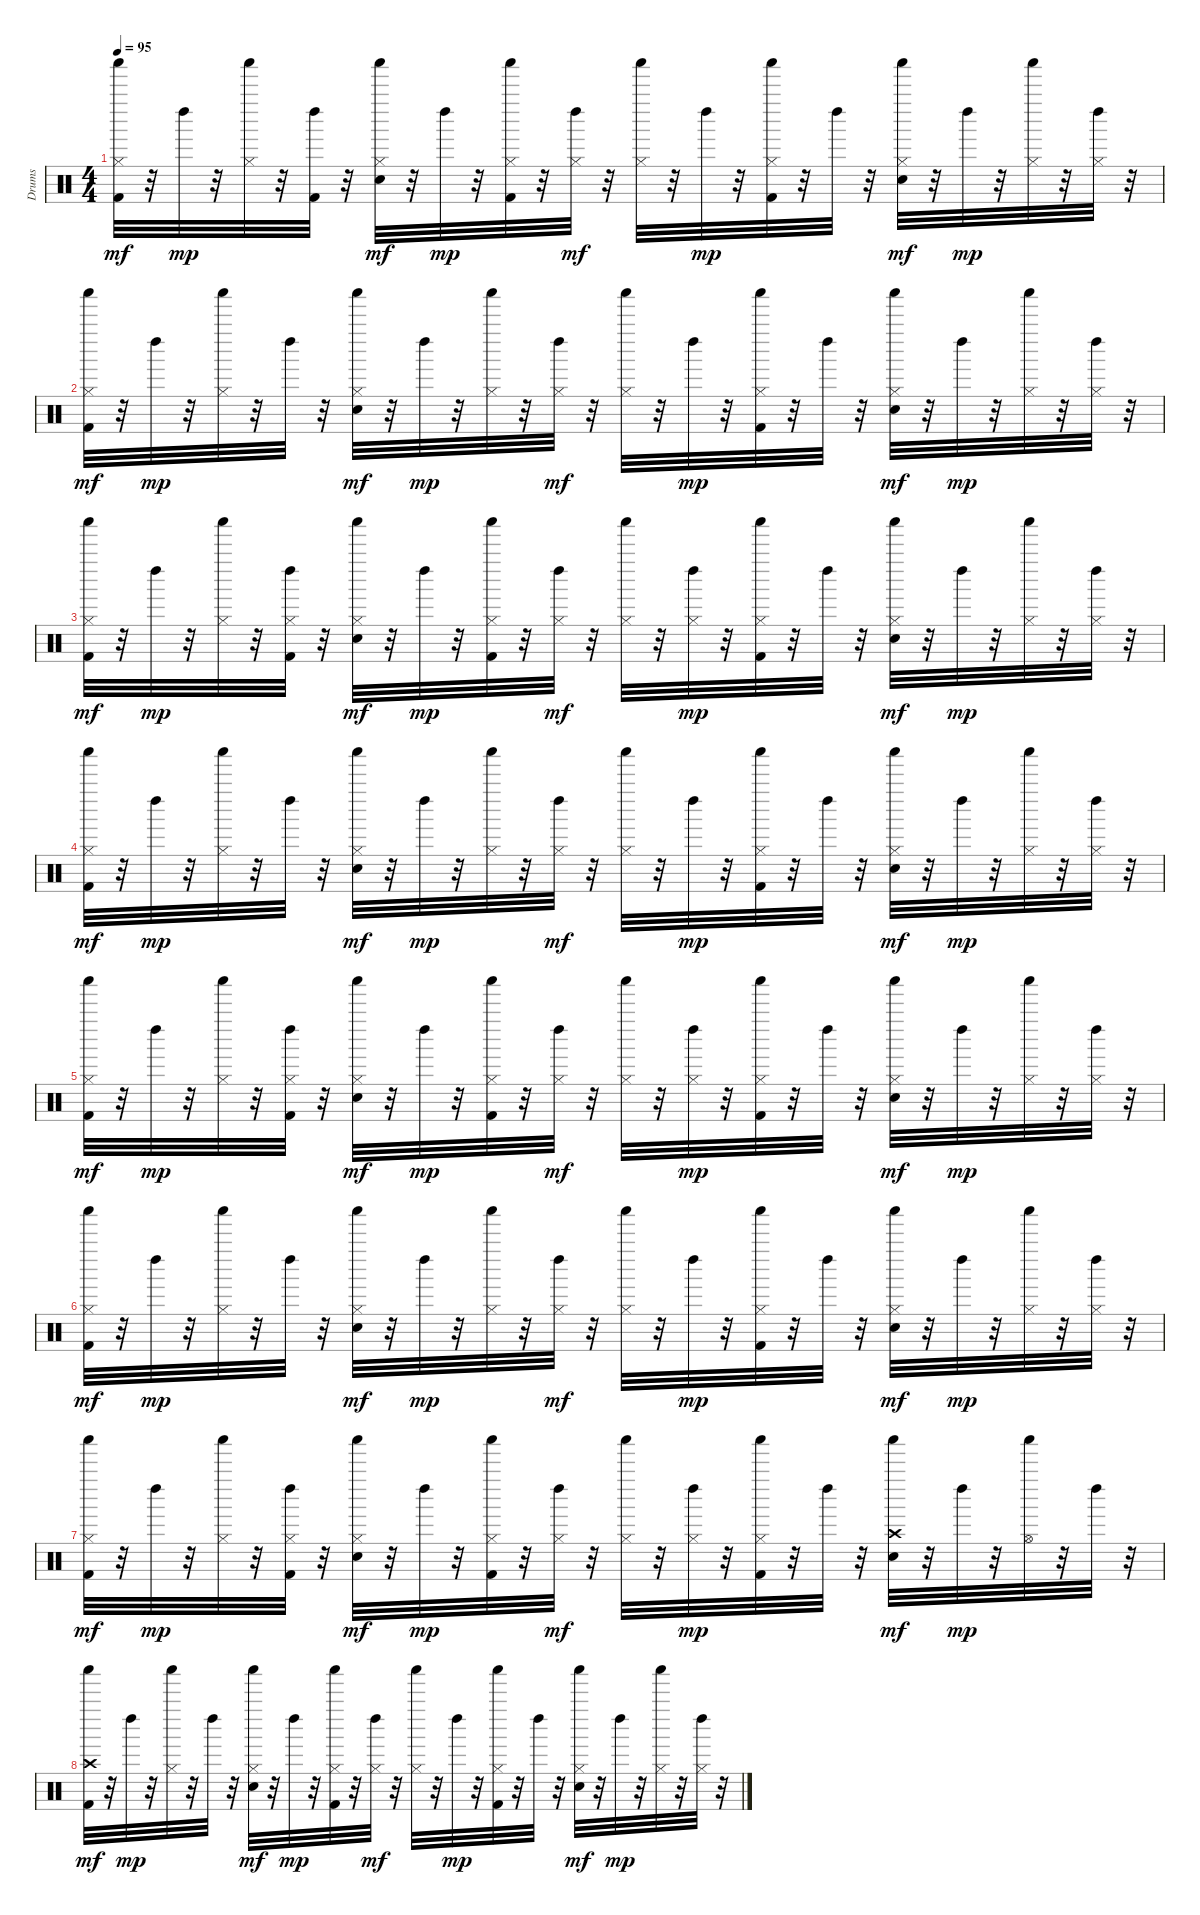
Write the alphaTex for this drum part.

\track ("Drums" "Drums") {instrument percussion}
\staff {score}
\articulation defaults
\ts (4 4)
\tempo 95
\clef neutral
\ks c
("Kick (hit) 2" "Hi-Hat (closed)" "Shaker (hit)").32{dy mf} r.32 "Left Maraca (hit)".32{dy mp} r.32 ("Hi-Hat (closed)" "Shaker (hit)").32 r.32 ("Kick (hit) 2" "Left Maraca (hit)").32 r.32 ("Electric Snare (hit)" "Hi-Hat (closed)" "Shaker (hit)").32{dy mf} r.32 "Left Maraca (hit)".32{dy mp} r.32 ("Kick (hit) 2" "Hi-Hat (closed)" "Shaker (hit)").32 r.32 ("Hi-Hat (closed)" "Left Maraca (hit)").32{dy mf} r.32 ("Hi-Hat (closed)" "Shaker (hit)").32 r.32 "Left Maraca (hit)".32{dy mp} r.32 ("Kick (hit) 2" "Hi-Hat (closed)" "Shaker (hit)").32 r.32 "Left Maraca (hit)".32 r.32 ("Electric Snare (hit)" "Hi-Hat (closed)" "Shaker (hit)").32{dy mf} r.32 "Left Maraca (hit)".32{dy mp} r.32 ("Hi-Hat (closed)" "Shaker (hit)").32 r.32 ("Hi-Hat (closed)" "Left Maraca (hit)").32 r.32 |
("Kick (hit) 2" "Hi-Hat (closed)" "Shaker (hit)").32{dy mf} r.32 "Left Maraca (hit)".32{dy mp} r.32 ("Hi-Hat (closed)" "Shaker (hit)").32 r.32 "Left Maraca (hit)".32 r.32 ("Electric Snare (hit)" "Hi-Hat (closed)" "Shaker (hit)").32{dy mf} r.32 "Left Maraca (hit)".32{dy mp} r.32 ("Hi-Hat (closed)" "Shaker (hit)").32 r.32 ("Hi-Hat (closed)" "Left Maraca (hit)").32{dy mf} r.32 ("Hi-Hat (closed)" "Shaker (hit)").32 r.32 "Left Maraca (hit)".32{dy mp} r.32 ("Kick (hit) 2" "Hi-Hat (closed)" "Shaker (hit)").32 r.32 "Left Maraca (hit)".32 r.32 ("Electric Snare (hit)" "Hi-Hat (closed)" "Shaker (hit)").32{dy mf} r.32 "Left Maraca (hit)".32{dy mp} r.32 ("Hi-Hat (closed)" "Shaker (hit)").32 r.32 ("Hi-Hat (closed)" "Left Maraca (hit)").32 r.32 |
("Kick (hit) 2" "Hi-Hat (closed)" "Shaker (hit)").32{dy mf} r.32 "Left Maraca (hit)".32{dy mp} r.32 ("Hi-Hat (closed)" "Shaker (hit)").32 r.32 ("Kick (hit) 2" "Hi-Hat (closed)" "Left Maraca (hit)").32 r.32 ("Electric Snare (hit)" "Hi-Hat (closed)" "Shaker (hit)").32{dy mf} r.32 "Left Maraca (hit)".32{dy mp} r.32 ("Kick (hit) 2" "Hi-Hat (closed)" "Shaker (hit)").32 r.32 ("Hi-Hat (closed)" "Left Maraca (hit)").32{dy mf} r.32 ("Hi-Hat (closed)" "Shaker (hit)").32 r.32 ("Hi-Hat (closed)" "Left Maraca (hit)").32{dy mp} r.32 ("Kick (hit) 2" "Hi-Hat (closed)" "Shaker (hit)").32 r.32 "Left Maraca (hit)".32 r.32 ("Electric Snare (hit)" "Hi-Hat (closed)" "Shaker (hit)").32{dy mf} r.32 "Left Maraca (hit)".32{dy mp} r.32 ("Hi-Hat (closed)" "Shaker (hit)").32 r.32 ("Hi-Hat (closed)" "Left Maraca (hit)").32 r.32 |
("Kick (hit) 2" "Hi-Hat (closed)" "Shaker (hit)").32{dy mf} r.32 "Left Maraca (hit)".32{dy mp} r.32 ("Hi-Hat (closed)" "Shaker (hit)").32 r.32 "Left Maraca (hit)".32 r.32 ("Electric Snare (hit)" "Hi-Hat (closed)" "Shaker (hit)").32{dy mf} r.32 "Left Maraca (hit)".32{dy mp} r.32 ("Hi-Hat (closed)" "Shaker (hit)").32 r.32 ("Hi-Hat (closed)" "Left Maraca (hit)").32{dy mf} r.32 ("Hi-Hat (closed)" "Shaker (hit)").32 r.32 "Left Maraca (hit)".32{dy mp} r.32 ("Kick (hit) 2" "Hi-Hat (closed)" "Shaker (hit)").32 r.32 "Left Maraca (hit)".32 r.32 ("Electric Snare (hit)" "Hi-Hat (closed)" "Shaker (hit)").32{dy mf} r.32 "Left Maraca (hit)".32{dy mp} r.32 ("Hi-Hat (closed)" "Shaker (hit)").32 r.32 ("Hi-Hat (closed)" "Left Maraca (hit)").32 r.32 |
("Kick (hit) 2" "Hi-Hat (closed)" "Shaker (hit)").32{dy mf} r.32 "Left Maraca (hit)".32{dy mp} r.32 ("Hi-Hat (closed)" "Shaker (hit)").32 r.32 ("Kick (hit) 2" "Hi-Hat (closed)" "Left Maraca (hit)").32 r.32 ("Electric Snare (hit)" "Hi-Hat (closed)" "Shaker (hit)").32{dy mf} r.32 "Left Maraca (hit)".32{dy mp} r.32 ("Kick (hit) 2" "Hi-Hat (closed)" "Shaker (hit)").32 r.32 ("Hi-Hat (closed)" "Left Maraca (hit)").32{dy mf} r.32 ("Hi-Hat (closed)" "Shaker (hit)").32 r.32 ("Hi-Hat (closed)" "Left Maraca (hit)").32{dy mp} r.32 ("Kick (hit) 2" "Hi-Hat (closed)" "Shaker (hit)").32 r.32 "Left Maraca (hit)".32 r.32 ("Electric Snare (hit)" "Hi-Hat (closed)" "Shaker (hit)").32{dy mf} r.32 "Left Maraca (hit)".32{dy mp} r.32 ("Hi-Hat (closed)" "Shaker (hit)").32 r.32 ("Hi-Hat (closed)" "Left Maraca (hit)").32 r.32 |
("Kick (hit) 2" "Hi-Hat (closed)" "Shaker (hit)").32{dy mf} r.32 "Left Maraca (hit)".32{dy mp} r.32 ("Hi-Hat (closed)" "Shaker (hit)").32 r.32 "Left Maraca (hit)".32 r.32 ("Electric Snare (hit)" "Hi-Hat (closed)" "Shaker (hit)").32{dy mf} r.32 "Left Maraca (hit)".32{dy mp} r.32 ("Hi-Hat (closed)" "Shaker (hit)").32 r.32 ("Hi-Hat (closed)" "Left Maraca (hit)").32{dy mf} r.32 ("Hi-Hat (closed)" "Shaker (hit)").32 r.32 "Left Maraca (hit)".32{dy mp} r.32 ("Kick (hit) 2" "Hi-Hat (closed)" "Shaker (hit)").32 r.32 "Left Maraca (hit)".32 r.32 ("Electric Snare (hit)" "Hi-Hat (closed)" "Shaker (hit)").32{dy mf} r.32 "Left Maraca (hit)".32{dy mp} r.32 ("Hi-Hat (closed)" "Shaker (hit)").32 r.32 ("Hi-Hat (closed)" "Left Maraca (hit)").32 r.32 |
("Kick (hit) 2" "Hi-Hat (closed)" "Shaker (hit)").32{dy mf} r.32 "Left Maraca (hit)".32{dy mp} r.32 ("Hi-Hat (closed)" "Shaker (hit)").32 r.32 ("Kick (hit) 2" "Hi-Hat (closed)" "Left Maraca (hit)").32 r.32 ("Electric Snare (hit)" "Hi-Hat (closed)" "Shaker (hit)").32{dy mf} r.32 "Left Maraca (hit)".32{dy mp} r.32 ("Kick (hit) 2" "Hi-Hat (closed)" "Shaker (hit)").32 r.32 ("Hi-Hat (closed)" "Left Maraca (hit)").32{dy mf} r.32 ("Hi-Hat (closed)" "Shaker (hit)").32 r.32 ("Hi-Hat (closed)" "Left Maraca (hit)").32{dy mp} r.32 ("Kick (hit) 2" "Hi-Hat (closed)" "Shaker (hit)").32 r.32 "Left Maraca (hit)".32 r.32 ("Electric Snare (hit)" "Crash high (hit)" "Shaker (hit)").32{dy mf} r.32 "Left Maraca (hit)".32{dy mp} r.32 ("Hi-Hat (open)" "Shaker (hit)").32 r.32 "Left Maraca (hit)".32 r.32 |
("Kick (hit) 2" "Crash high (hit)" "Shaker (hit)").32{dy mf} r.32 "Left Maraca (hit)".32{dy mp} r.32 ("Hi-Hat (closed)" "Shaker (hit)").32 r.32 "Left Maraca (hit)".32 r.32 ("Electric Snare (hit)" "Hi-Hat (closed)" "Shaker (hit)").32{dy mf} r.32 "Left Maraca (hit)".32{dy mp} r.32 ("Kick (hit) 2" "Hi-Hat (closed)" "Shaker (hit)").32 r.32 ("Hi-Hat (closed)" "Left Maraca (hit)").32{dy mf} r.32 ("Hi-Hat (closed)" "Shaker (hit)").32 r.32 "Left Maraca (hit)".32{dy mp} r.32 ("Kick (hit) 2" "Hi-Hat (closed)" "Shaker (hit)").32 r.32 "Left Maraca (hit)".32 r.32 ("Electric Snare (hit)" "Hi-Hat (closed)" "Shaker (hit)").32{dy mf} r.32 "Left Maraca (hit)".32{dy mp} r.32 ("Hi-Hat (closed)" "Shaker (hit)").32 r.32 ("Hi-Hat (closed)" "Left Maraca (hit)").32 r.32
